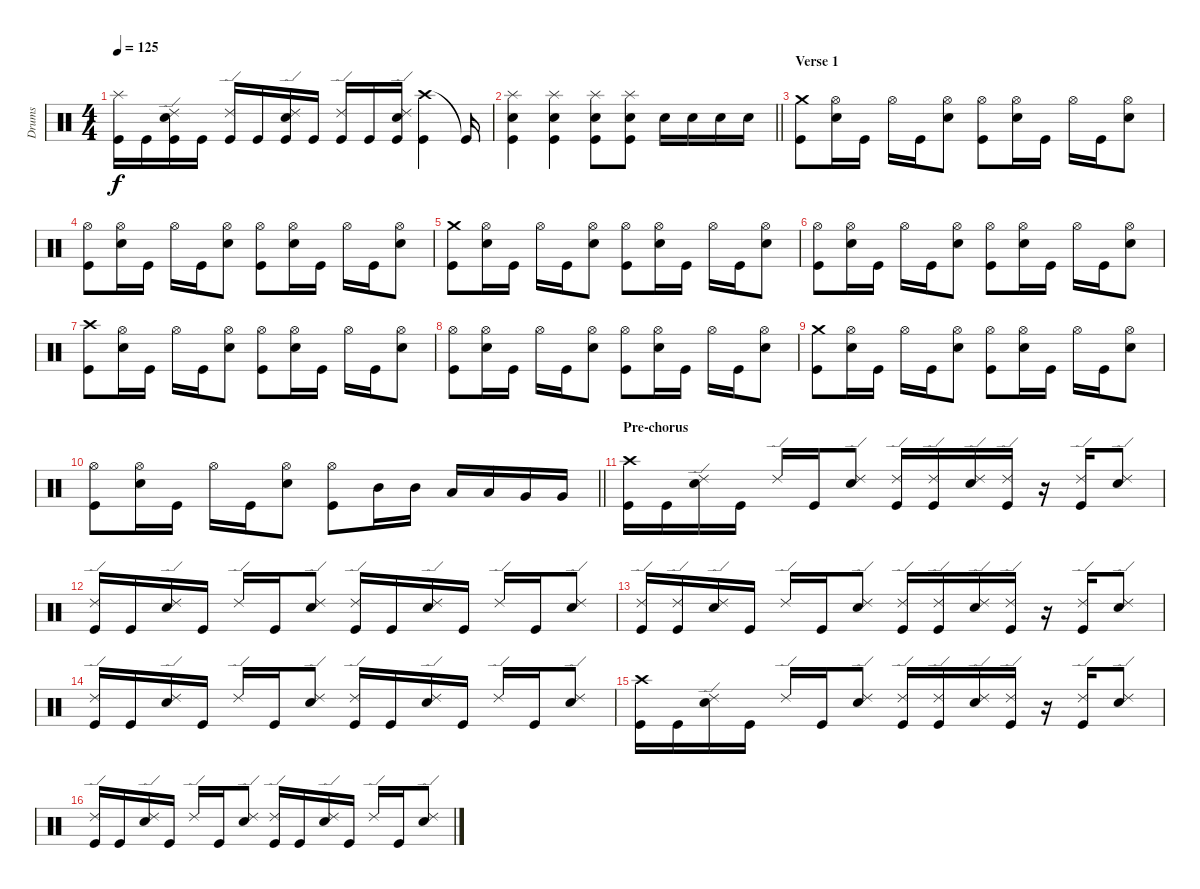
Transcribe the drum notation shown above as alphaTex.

\track ("Drums" "Drums") {instrument percussion}
\staff {score}
\articulation defaults
\ts (4 4)
\tempo 125
\clef neutral
\ks c
("Splash (hit)" "Kick (hit)").16{dy f} "Kick (hit)".16 ("Ride (edge) 2" "Snare (hit) 2" "Kick (hit)").16 "Kick (hit)".16 ("Ride (edge) 2" "Kick (hit)").16 "Kick (hit)".16 ("Ride (edge) 2" "Snare (hit) 2" "Kick (hit)").16 "Kick (hit)".16 ("Ride (edge) 2" "Kick (hit)").16 "Kick (hit)".16 ("Ride (edge) 2" "Snare (hit) 2" "Kick (hit)").16 ("Crash high (hit)" "Kick (hit)").4 "Kick (hit)"{t}.16 |
\barLineRight lightlight
("Splash (hit)" "Snare (hit) 2" "Kick (hit)").4 ("Splash (hit)" "Snare (hit) 2" "Kick (hit)").4 ("Splash (hit)" "Snare (hit) 2" "Kick (hit)").8 ("Splash (hit)" "Snare (hit) 2" "Kick (hit)").8 "Snare (hit) 2".16 "Snare (hit) 2".16 "Snare (hit) 2".16 "Snare (hit) 2".16 |
\section ("" "Verse 1")
("Crash medium (hit)" "Kick (hit)").8 ("Hi-Hat (open)" "Snare (hit) 2").16 "Kick (hit)".16 "Hi-Hat (open)".16 "Kick (hit)".16 ("Hi-Hat (open)" "Snare (hit) 2").8 ("Hi-Hat (open)" "Kick (hit)").8 ("Hi-Hat (open)" "Snare (hit) 2").16 "Kick (hit)".16 "Hi-Hat (open)".16 "Kick (hit)".16 ("Hi-Hat (open)" "Snare (hit) 2").8 |
("Hi-Hat (open)" "Kick (hit)").8 ("Hi-Hat (open)" "Snare (hit) 2").16 "Kick (hit)".16 "Hi-Hat (open)".16 "Kick (hit)".16 ("Hi-Hat (open)" "Snare (hit) 2").8 ("Hi-Hat (open)" "Kick (hit)").8 ("Hi-Hat (open)" "Snare (hit) 2").16 "Kick (hit)".16 "Hi-Hat (open)".16 "Kick (hit)".16 ("Hi-Hat (open)" "Snare (hit) 2").8 |
("Crash medium (hit)" "Kick (hit)").8 ("Hi-Hat (open)" "Snare (hit) 2").16 "Kick (hit)".16 "Hi-Hat (open)".16 "Kick (hit)".16 ("Hi-Hat (open)" "Snare (hit) 2").8 ("Hi-Hat (open)" "Kick (hit)").8 ("Hi-Hat (open)" "Snare (hit) 2").16 "Kick (hit)".16 "Hi-Hat (open)".16 "Kick (hit)".16 ("Hi-Hat (open)" "Snare (hit) 2").8 |
("Hi-Hat (open)" "Kick (hit)").8 ("Hi-Hat (open)" "Snare (hit) 2").16 "Kick (hit)".16 "Hi-Hat (open)".16 "Kick (hit)".16 ("Hi-Hat (open)" "Snare (hit) 2").8 ("Hi-Hat (open)" "Kick (hit)").8 ("Hi-Hat (open)" "Snare (hit) 2").16 "Kick (hit)".16 "Hi-Hat (open)".16 "Kick (hit)".16 ("Hi-Hat (open)" "Snare (hit) 2").8 |
("Crash high (hit)" "Kick (hit)").8 ("Hi-Hat (open)" "Snare (hit) 2").16 "Kick (hit)".16 "Hi-Hat (open)".16 "Kick (hit)".16 ("Hi-Hat (open)" "Snare (hit) 2").8 ("Hi-Hat (open)" "Kick (hit)").8 ("Hi-Hat (open)" "Snare (hit) 2").16 "Kick (hit)".16 "Hi-Hat (open)".16 "Kick (hit)".16 ("Hi-Hat (open)" "Snare (hit) 2").8 |
("Hi-Hat (open)" "Kick (hit)").8 ("Hi-Hat (open)" "Snare (hit) 2").16 "Kick (hit)".16 "Hi-Hat (open)".16 "Kick (hit)".16 ("Hi-Hat (open)" "Snare (hit) 2").8 ("Hi-Hat (open)" "Kick (hit)").8 ("Hi-Hat (open)" "Snare (hit) 2").16 "Kick (hit)".16 "Hi-Hat (open)".16 "Kick (hit)".16 ("Hi-Hat (open)" "Snare (hit) 2").8 |
("Crash medium (hit)" "Kick (hit)").8 ("Hi-Hat (open)" "Snare (hit) 2").16 "Kick (hit)".16 "Hi-Hat (open)".16 "Kick (hit)".16 ("Hi-Hat (open)" "Snare (hit) 2").8 ("Hi-Hat (open)" "Kick (hit)").8 ("Hi-Hat (open)" "Snare (hit) 2").16 "Kick (hit)".16 "Hi-Hat (open)".16 "Kick (hit)".16 ("Hi-Hat (open)" "Snare (hit) 2").8 |
\barLineRight lightlight
("Hi-Hat (open)" "Kick (hit)").8 ("Hi-Hat (open)" "Snare (hit) 2").16 "Kick (hit)".16 "Hi-Hat (open)".16 "Kick (hit)".16 ("Hi-Hat (open)" "Snare (hit) 2").8 ("Hi-Hat (open)" "Kick (hit)").8 "Mid Tom (hit)".16 "Mid Tom (hit)".16 "Low Tom (hit)".16 "Low Tom (hit)".16 "Very Low Tom (hit)".16 "Very Low Tom (hit)".16 |
\section ("" "Pre-chorus")
("Crash high (hit)" "Kick (hit)").16 "Kick (hit)".16 ("Ride (edge) 2" "Snare (hit) 2").16 "Kick (hit)".16 "Ride (edge) 2".16 "Kick (hit)".16 ("Ride (edge) 2" "Snare (hit) 2").8 ("Ride (edge) 2" "Kick (hit)").16 ("Ride (edge) 2" "Kick (hit)").16 ("Ride (edge) 2" "Snare (hit) 2").16 ("Ride (edge) 2" "Kick (hit)").16 r.16 ("Ride (edge) 2" "Kick (hit)").16 ("Ride (edge) 2" "Snare (hit) 2").8 |
("Ride (edge) 2" "Kick (hit)").16 "Kick (hit)".16 ("Ride (edge) 2" "Snare (hit) 2").16 "Kick (hit)".16 "Ride (edge) 2".16 "Kick (hit)".16 ("Ride (edge) 2" "Snare (hit) 2").8 ("Ride (edge) 2" "Kick (hit)").16 "Kick (hit)".16 ("Ride (edge) 2" "Snare (hit) 2").16 "Kick (hit)".16 "Ride (edge) 2".16 "Kick (hit)".16 ("Ride (edge) 2" "Snare (hit) 2").8 |
("Ride (edge) 2" "Kick (hit)").16 ("Ride (edge) 2" "Kick (hit)").16 ("Ride (edge) 2" "Snare (hit) 2").16 "Kick (hit)".16 "Ride (edge) 2".16 "Kick (hit)".16 ("Ride (edge) 2" "Snare (hit) 2").8 ("Ride (edge) 2" "Kick (hit)").16 ("Ride (edge) 2" "Kick (hit)").16 ("Ride (edge) 2" "Snare (hit) 2").16 ("Ride (edge) 2" "Kick (hit)").16 r.16 ("Ride (edge) 2" "Kick (hit)").16 ("Ride (edge) 2" "Snare (hit) 2").8 |
("Ride (edge) 2" "Kick (hit)").16 "Kick (hit)".16 ("Ride (edge) 2" "Snare (hit) 2").16 "Kick (hit)".16 "Ride (edge) 2".16 "Kick (hit)".16 ("Ride (edge) 2" "Snare (hit) 2").8 ("Ride (edge) 2" "Kick (hit)").16 "Kick (hit)".16 ("Ride (edge) 2" "Snare (hit) 2").16 "Kick (hit)".16 "Ride (edge) 2".16 "Kick (hit)".16 ("Ride (edge) 2" "Snare (hit) 2").8 |
("Crash high (hit)" "Kick (hit)").16 "Kick (hit)".16 ("Ride (edge) 2" "Snare (hit) 2").16 "Kick (hit)".16 "Ride (edge) 2".16 "Kick (hit)".16 ("Ride (edge) 2" "Snare (hit) 2").8 ("Ride (edge) 2" "Kick (hit)").16 ("Ride (edge) 2" "Kick (hit)").16 ("Ride (edge) 2" "Snare (hit) 2").16 ("Ride (edge) 2" "Kick (hit)").16 r.16 ("Ride (edge) 2" "Kick (hit)").16 ("Ride (edge) 2" "Snare (hit) 2").8 |
("Ride (edge) 2" "Kick (hit)").16 "Kick (hit)".16 ("Ride (edge) 2" "Snare (hit) 2").16 "Kick (hit)".16 "Ride (edge) 2".16 "Kick (hit)".16 ("Ride (edge) 2" "Snare (hit) 2").8 ("Ride (edge) 2" "Kick (hit)").16 "Kick (hit)".16 ("Ride (edge) 2" "Snare (hit) 2").16 "Kick (hit)".16 "Ride (edge) 2".16 "Kick (hit)".16 ("Ride (edge) 2" "Snare (hit) 2").8
